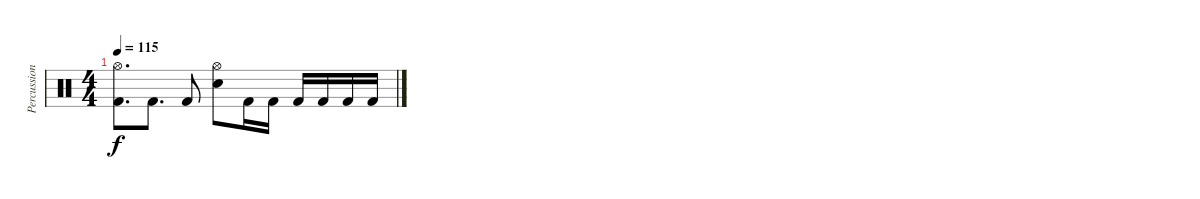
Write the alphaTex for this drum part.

\track ("Percussions" "Percussion") {instrument percussion}
\staff {score}
\articulation defaults
\ts (4 4)
\tempo 115
\clef neutral
\ks c
("Kick (hit) 2" "Hi-Hat (open)").8{d dy f} "Kick (hit) 2".8{d} "Kick (hit) 2".8 ("Electric Snare (hit)" "Hi-Hat (open)").8 "Kick (hit) 2".16 "Kick (hit) 2".16 "Kick (hit) 2".16 "Kick (hit) 2".16 "Kick (hit) 2".16 "Kick (hit) 2".16
